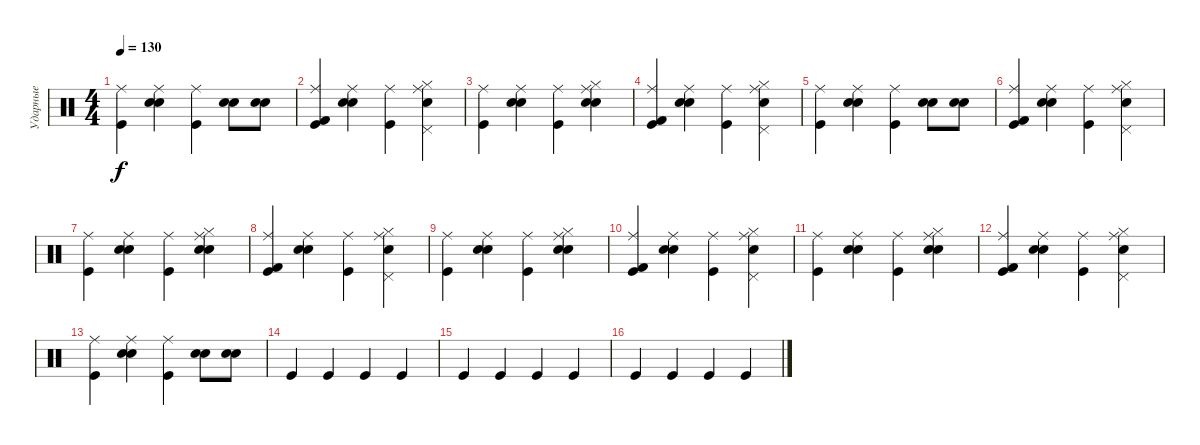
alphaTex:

\track ("Ударные" "Ударные") {instrument percussion}
\staff {score}
\articulation defaults
\ts (4 4)
\tempo 130
\clef neutral
\ks c
("Kick (hit)" "Ride (middle)").4{dy f} ("Electric Snare (hit)" "Electric Snare (hit)" "Ride (middle)").4 ("Kick (hit)" "Ride (middle)").4 ("Electric Snare (hit)" "Electric Snare (hit)").8 ("Electric Snare (hit)" "Electric Snare (hit)").8 |
("Kick (hit)" "Kick (hit) 2" "Ride (middle)").4 ("Electric Snare (hit)" "Electric Snare (hit)" "Ride (middle)").4 ("Kick (hit)" "Ride (middle)").4 ("Electric Snare (hit)" "Pedal Hi-Hat (hit)" "Hi-Hat (closed)" "Ride (middle)").4 |
("Kick (hit)" "Ride (middle)").4 ("Electric Snare (hit)" "Electric Snare (hit)" "Ride (middle)").4 ("Kick (hit)" "Ride (middle)").4 ("Electric Snare (hit)" "Electric Snare (hit)" "Hi-Hat (closed)" "Ride (middle)").4 |
("Kick (hit)" "Kick (hit) 2" "Ride (middle)").4 ("Electric Snare (hit)" "Electric Snare (hit)" "Ride (middle)").4 ("Kick (hit)" "Ride (middle)").4 ("Electric Snare (hit)" "Pedal Hi-Hat (hit)" "Hi-Hat (closed)" "Ride (middle)").4 |
("Kick (hit)" "Ride (middle)").4 ("Electric Snare (hit)" "Electric Snare (hit)" "Ride (middle)").4 ("Kick (hit)" "Ride (middle)").4 ("Electric Snare (hit)" "Electric Snare (hit)").8 ("Electric Snare (hit)" "Electric Snare (hit)").8 |
("Kick (hit)" "Kick (hit) 2" "Ride (middle)").4 ("Electric Snare (hit)" "Electric Snare (hit)" "Ride (middle)").4 ("Kick (hit)" "Ride (middle)").4 ("Electric Snare (hit)" "Pedal Hi-Hat (hit)" "Hi-Hat (closed)" "Ride (middle)").4 |
("Kick (hit)" "Ride (middle)").4 ("Electric Snare (hit)" "Electric Snare (hit)" "Ride (middle)").4 ("Kick (hit)" "Ride (middle)").4 ("Electric Snare (hit)" "Electric Snare (hit)" "Hi-Hat (closed)" "Ride (middle)").4 |
("Kick (hit)" "Kick (hit) 2" "Ride (middle)").4 ("Electric Snare (hit)" "Electric Snare (hit)" "Ride (middle)").4 ("Kick (hit)" "Ride (middle)").4 ("Electric Snare (hit)" "Pedal Hi-Hat (hit)" "Hi-Hat (closed)" "Ride (middle)").4 |
("Kick (hit)" "Ride (middle)").4 ("Electric Snare (hit)" "Electric Snare (hit)" "Ride (middle)").4 ("Kick (hit)" "Ride (middle)").4 ("Electric Snare (hit)" "Electric Snare (hit)" "Hi-Hat (closed)" "Ride (middle)").4 |
("Kick (hit)" "Kick (hit) 2" "Ride (middle)").4 ("Electric Snare (hit)" "Electric Snare (hit)" "Ride (middle)").4 ("Kick (hit)" "Ride (middle)").4 ("Electric Snare (hit)" "Pedal Hi-Hat (hit)" "Hi-Hat (closed)" "Ride (middle)").4 |
("Kick (hit)" "Ride (middle)").4 ("Electric Snare (hit)" "Electric Snare (hit)" "Ride (middle)").4 ("Kick (hit)" "Ride (middle)").4 ("Electric Snare (hit)" "Electric Snare (hit)" "Hi-Hat (closed)" "Ride (middle)").4 |
("Kick (hit)" "Kick (hit) 2" "Ride (middle)").4 ("Electric Snare (hit)" "Electric Snare (hit)" "Ride (middle)").4 ("Kick (hit)" "Ride (middle)").4 ("Electric Snare (hit)" "Pedal Hi-Hat (hit)" "Hi-Hat (closed)" "Ride (middle)").4 |
("Kick (hit)" "Ride (middle)").4 ("Electric Snare (hit)" "Electric Snare (hit)" "Ride (middle)").4 ("Kick (hit)" "Ride (middle)").4 ("Electric Snare (hit)" "Electric Snare (hit)").8 ("Electric Snare (hit)" "Electric Snare (hit)").8 |
"Kick (hit)".4 "Kick (hit)".4 "Kick (hit)".4 "Kick (hit)".4 |
"Kick (hit)".4 "Kick (hit)".4 "Kick (hit)".4 "Kick (hit)".4 |
"Kick (hit)".4 "Kick (hit)".4 "Kick (hit)".4 "Kick (hit)".4
